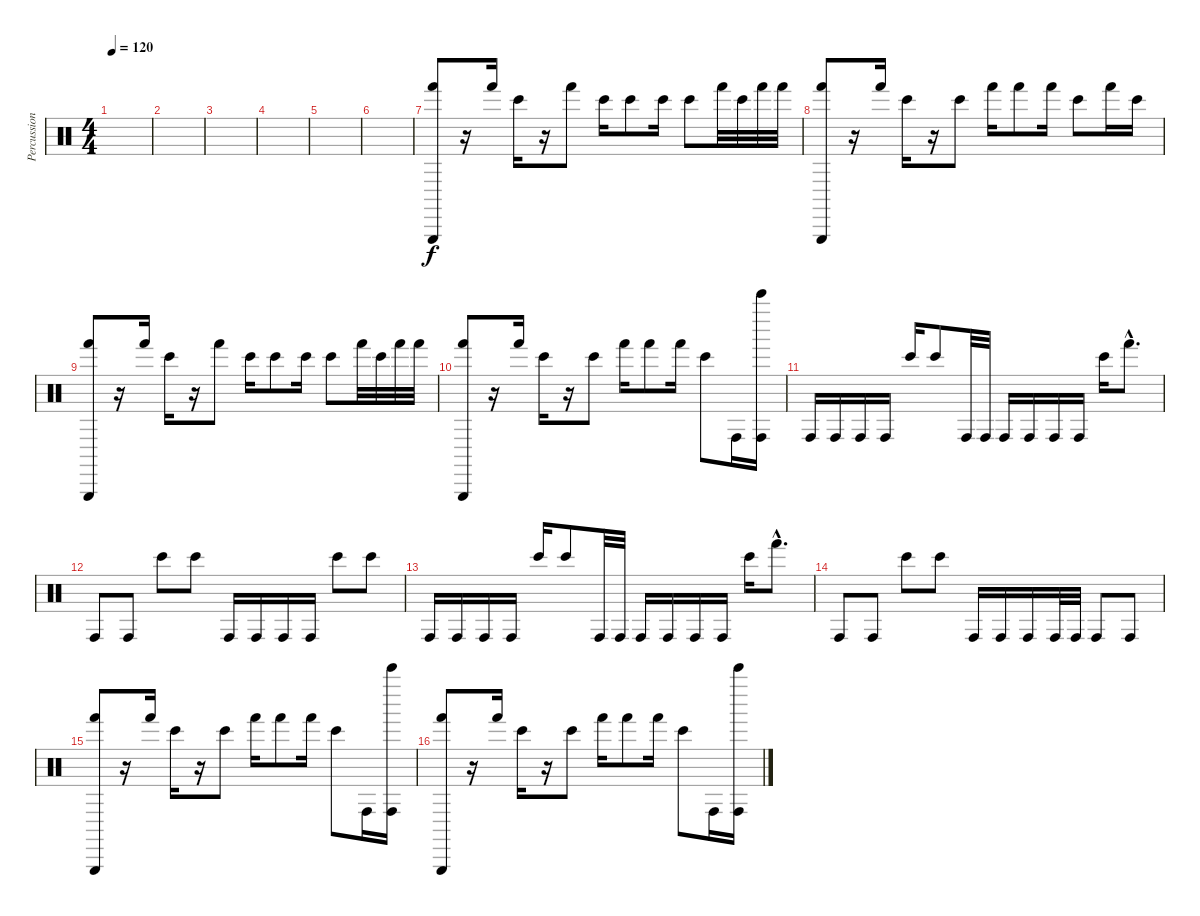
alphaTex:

\track ("Percussions" "Percussion") {instrument percussion}
\staff {score}
\articulation defaults
\ts (4 4)
\tempo 120
\clef neutral
\ks c
|
|
|
|
|
|
("Hand (hit)" "Triangle (hit)").8 r.16 "Hand (hit)".16 "Bongo High (hit)".16 r.16 "Hand (hit)".8 "Bongo High (hit)".16 "Bongo High (hit)".8 "Bongo High (hit)".16 "Bongo High (hit)".8 "Hand (hit)".32 "Bongo High (hit)".32 "Hand (hit)".32 "Hand (hit)".32 |
("Triangle (hit)" "Hand (hit)").8 r.16 "Hand (hit)".16 "Bongo High (hit)".16 r.16 "Bongo High (hit)".8 "Hand (hit)".16 "Hand (hit)".8 "Hand (hit)".16 "Bongo High (hit)".8 "Hand (hit)".16 "Bongo High (hit)".16 |
("Hand (hit)" "Triangle (hit)").8 r.16 "Hand (hit)".16 "Bongo High (hit)".16 r.16 "Hand (hit)".8 "Bongo High (hit)".16 "Bongo High (hit)".8 "Bongo High (hit)".16 "Bongo High (hit)".8 "Hand (hit)".32 "Bongo High (hit)".32 "Hand (hit)".32 "Hand (hit)".32 |
("Triangle (hit)" "Hand (hit)").8 r.16 "Hand (hit)".16 "Bongo High (hit)".16 r.16 "Bongo High (hit)".8 "Hand (hit)".16 "Hand (hit)".8 "Hand (hit)".16 "Bongo High (hit)".8 "Conga high (hit)".16 ("Conga high (hit)" "Bell Tree (hit)").16 |
"Conga high (hit)".16 "Conga high (hit)".16 "Conga high (hit)".16 "Conga high (hit)".16 "Bongo High (hit)".16 "Bongo High (hit)".8 "Conga high (hit)".32 "Conga high (hit)".32 "Conga high (hit)".16 "Conga high (hit)".16 "Conga high (hit)".16 "Conga high (hit)".16 "Bongo High (hit)".16 "Hand (hit)"{hac}.8{d} |
"Conga high (hit)".8 "Conga high (hit)".8 "Bongo High (hit)".8 "Bongo High (hit)".8 "Conga high (hit)".16 "Conga high (hit)".16 "Conga high (hit)".16 "Conga high (hit)".16 "Bongo High (hit)".8 "Bongo High (hit)".8 |
"Conga high (hit)".16 "Conga high (hit)".16 "Conga high (hit)".16 "Conga high (hit)".16 "Bongo High (hit)".16 "Bongo High (hit)".8 "Conga high (hit)".32 "Conga high (hit)".32 "Conga high (hit)".16 "Conga high (hit)".16 "Conga high (hit)".16 "Conga high (hit)".16 "Bongo High (hit)".16 "Hand (hit)"{hac}.8{d} |
"Conga high (hit)".8 "Conga high (hit)".8 "Bongo High (hit)".8 "Bongo High (hit)".8 "Conga high (hit)".16 "Conga high (hit)".16 "Conga high (hit)".16 "Conga high (hit)".32 "Conga high (hit)".32 "Conga high (hit)".8 "Conga high (hit)".8 |
("Triangle (hit)" "Hand (hit)").8 r.16 "Hand (hit)".16 "Bongo High (hit)".16 r.16 "Bongo High (hit)".8 "Hand (hit)".16 "Hand (hit)".8 "Hand (hit)".16 "Bongo High (hit)".8 "Conga high (hit)".16 ("Conga high (hit)" "Bell Tree (hit)").16 |
("Triangle (hit)" "Hand (hit)").8 r.16 "Hand (hit)".16 "Bongo High (hit)".16 r.16 "Bongo High (hit)".8 "Hand (hit)".16 "Hand (hit)".8 "Hand (hit)".16 "Bongo High (hit)".8 "Conga high (hit)".16 ("Conga high (hit)" "Bell Tree (hit)").16
